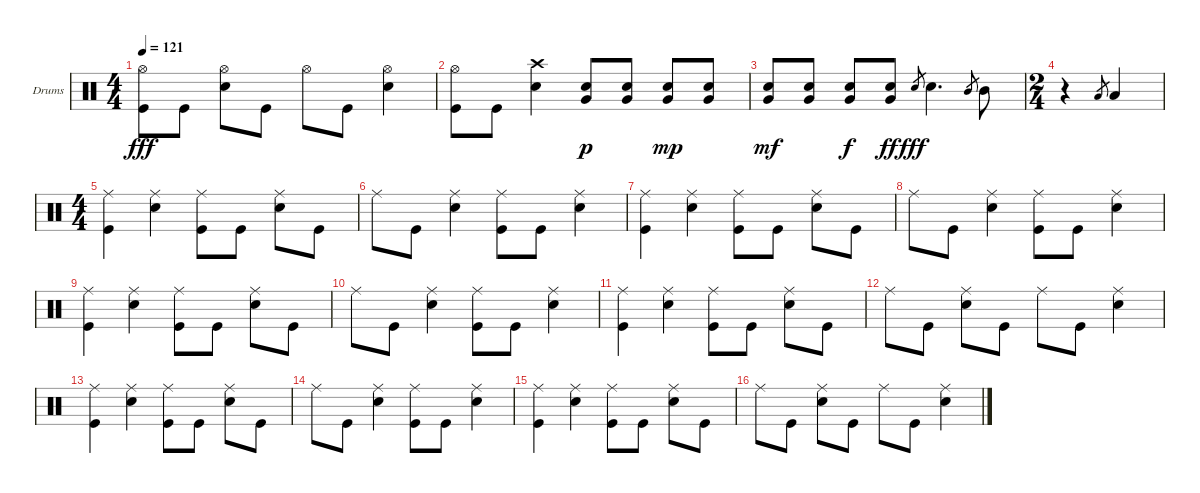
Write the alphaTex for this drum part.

\bracketExtendMode groupsimilarinstruments
\firstSystemTrackNameOrientation horizontal
\otherSystemsTrackNameOrientation horizontal
\track ("Drumkit" "Drums") {instrument percussion}
\staff {score}
\articulation defaults
\ts (4 4)
\tempo 121
\clef neutral
\ks c
("Kick (hit)" "Hi-Hat (open)").8{dy fff} "Kick (hit)".8 ("Snare (hit) 2" "Hi-Hat (open)").8 "Kick (hit)".8 "Hi-Hat (open)".8 "Kick (hit)".8 ("Snare (hit) 2" "Hi-Hat (open)").4 |
("Kick (hit)" "Hi-Hat (open)").8 "Kick (hit)".8 ("Snare (hit) 2" "Crash high (hit)").4 ("Snare (hit) 2" "Very Low Tom (hit)").8{dy p} ("Snare (hit) 2" "Very Low Tom (hit)").8 ("Snare (hit) 2" "Very Low Tom (hit)").8{dy mp} ("Snare (hit) 2" "Very Low Tom (hit)").8 |
("Snare (hit) 2" "Very Low Tom (hit)").8{dy mf} ("Snare (hit) 2" "Very Low Tom (hit)").8 ("Snare (hit) 2" "Very Low Tom (hit)").8{dy f} ("Snare (hit) 2" "Very Low Tom (hit)").8{dy ff} "Snare (hit) 2".8{gr dy fff} "Snare (hit) 2".4{d} "Mid Tom (hit)".8{gr} "Mid Tom (hit)".8 |
\ts (2 4)
r.4 "Low Tom (hit)".8{gr} "Low Tom (hit)".4 |
\ts (4 4)
("Kick (hit)" "Ride (middle)").4 ("Snare (hit) 2" "Ride (middle)").4 ("Kick (hit)" "Ride (middle)").8 "Kick (hit)".8 ("Snare (hit) 2" "Ride (middle)").8 "Kick (hit)".8 |
"Ride (middle)".8 "Kick (hit)".8 ("Snare (hit) 2" "Ride (middle)").4 ("Kick (hit)" "Ride (middle)").8 "Kick (hit)".8 ("Snare (hit) 2" "Ride (middle)").4 |
("Kick (hit)" "Ride (middle)").4 ("Snare (hit) 2" "Ride (middle)").4 ("Kick (hit)" "Ride (middle)").8 "Kick (hit)".8 ("Snare (hit) 2" "Ride (middle)").8 "Kick (hit)".8 |
"Ride (middle)".8 "Kick (hit)".8 ("Snare (hit) 2" "Ride (middle)").4 ("Kick (hit)" "Ride (middle)").8 "Kick (hit)".8 ("Snare (hit) 2" "Ride (middle)").4 |
("Kick (hit)" "Ride (middle)").4 ("Snare (hit) 2" "Ride (middle)").4 ("Kick (hit)" "Ride (middle)").8 "Kick (hit)".8 ("Snare (hit) 2" "Ride (middle)").8 "Kick (hit)".8 |
"Ride (middle)".8 "Kick (hit)".8 ("Snare (hit) 2" "Ride (middle)").4 ("Kick (hit)" "Ride (middle)").8 "Kick (hit)".8 ("Snare (hit) 2" "Ride (middle)").4 |
("Kick (hit)" "Ride (middle)").4 ("Snare (hit) 2" "Ride (middle)").4 ("Kick (hit)" "Ride (middle)").8 "Kick (hit)".8 ("Snare (hit) 2" "Ride (middle)").8 "Kick (hit)".8 |
"Ride (middle)".8 "Kick (hit)".8 ("Snare (hit) 2" "Ride (middle)").8 "Kick (hit)".8 "Ride (middle)".8 "Kick (hit)".8 ("Snare (hit) 2" "Ride (middle)").4 |
("Kick (hit)" "Ride (middle)").4 ("Snare (hit) 2" "Ride (middle)").4 ("Kick (hit)" "Ride (middle)").8 "Kick (hit)".8 ("Snare (hit) 2" "Ride (middle)").8 "Kick (hit)".8 |
"Ride (middle)".8 "Kick (hit)".8 ("Snare (hit) 2" "Ride (middle)").4 ("Kick (hit)" "Ride (middle)").8 "Kick (hit)".8 ("Snare (hit) 2" "Ride (middle)").4 |
("Kick (hit)" "Ride (middle)").4 ("Snare (hit) 2" "Ride (middle)").4 ("Kick (hit)" "Ride (middle)").8 "Kick (hit)".8 ("Snare (hit) 2" "Ride (middle)").8 "Kick (hit)".8 |
"Ride (middle)".8 "Kick (hit)".8 ("Snare (hit) 2" "Ride (middle)").8 "Kick (hit)".8 "Ride (middle)".8 "Kick (hit)".8 ("Snare (hit) 2" "Ride (middle)").4
